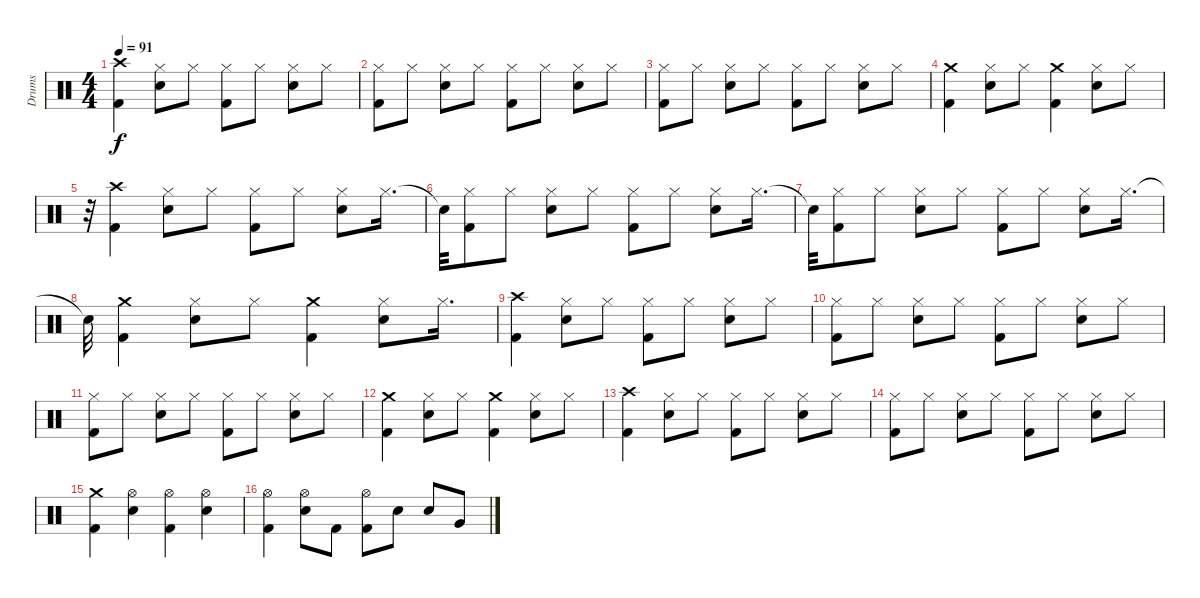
\track ("Drums" "Drums") {instrument percussion}
\staff {score}
\articulation defaults
\ts (4 4)
\tempo 91
\clef neutral
\ks c
("Kick (hit) 2" "Crash high (hit)").4{dy f} ("Hi-Hat (closed)" "Electric Snare (hit)").8 "Hi-Hat (closed)".8 ("Hi-Hat (closed)" "Kick (hit) 2").8 "Hi-Hat (closed)".8 ("Hi-Hat (closed)" "Electric Snare (hit)").8 "Hi-Hat (closed)".8 |
("Hi-Hat (closed)" "Kick (hit) 2").8 "Hi-Hat (closed)".8 ("Hi-Hat (closed)" "Electric Snare (hit)").8 "Hi-Hat (closed)".8 ("Hi-Hat (closed)" "Kick (hit) 2").8 "Hi-Hat (closed)".8 ("Hi-Hat (closed)" "Electric Snare (hit)").8 "Hi-Hat (closed)".8 |
("Hi-Hat (closed)" "Kick (hit) 2").8 "Hi-Hat (closed)".8 ("Hi-Hat (closed)" "Electric Snare (hit)").8 "Hi-Hat (closed)".8 ("Hi-Hat (closed)" "Kick (hit) 2").8 "Hi-Hat (closed)".8 ("Hi-Hat (closed)" "Electric Snare (hit)").8 "Hi-Hat (closed)".8 |
("Crash medium (hit)" "Kick (hit) 2").4 ("Hi-Hat (closed)" "Electric Snare (hit)").8 "Hi-Hat (closed)".8 ("Crash medium (hit)" "Kick (hit) 2").4 ("Hi-Hat (closed)" "Electric Snare (hit)").8 "Hi-Hat (closed)".8 |
r.32 ("Kick (hit) 2" "Crash high (hit)").4 ("Hi-Hat (closed)" "Electric Snare (hit)").8 "Hi-Hat (closed)".8 ("Hi-Hat (closed)" "Kick (hit) 2").8 "Hi-Hat (closed)".8 ("Hi-Hat (closed)" "Electric Snare (hit)").8 "Hi-Hat (closed)".16{d} |
"Snare (hit)"{t}.32 ("Hi-Hat (closed)" "Kick (hit) 2").8 "Hi-Hat (closed)".8 ("Hi-Hat (closed)" "Electric Snare (hit)").8 "Hi-Hat (closed)".8 ("Hi-Hat (closed)" "Kick (hit) 2").8 "Hi-Hat (closed)".8 ("Hi-Hat (closed)" "Electric Snare (hit)").8 "Hi-Hat (closed)".16{d} |
"Snare (hit)"{t}.32 ("Hi-Hat (closed)" "Kick (hit) 2").8 "Hi-Hat (closed)".8 ("Hi-Hat (closed)" "Electric Snare (hit)").8 "Hi-Hat (closed)".8 ("Hi-Hat (closed)" "Kick (hit) 2").8 "Hi-Hat (closed)".8 ("Hi-Hat (closed)" "Electric Snare (hit)").8 "Hi-Hat (closed)".16{d} |
"Snare (hit)"{t}.32 ("Crash medium (hit)" "Kick (hit) 2").4 ("Hi-Hat (closed)" "Electric Snare (hit)").8 "Hi-Hat (closed)".8 ("Crash medium (hit)" "Kick (hit) 2").4 ("Hi-Hat (closed)" "Electric Snare (hit)").8 "Hi-Hat (closed)".16{d} |
("Kick (hit) 2" "Crash high (hit)").4 ("Hi-Hat (closed)" "Electric Snare (hit)").8 "Hi-Hat (closed)".8 ("Hi-Hat (closed)" "Kick (hit) 2").8 "Hi-Hat (closed)".8 ("Hi-Hat (closed)" "Electric Snare (hit)").8 "Hi-Hat (closed)".8 |
("Hi-Hat (closed)" "Kick (hit) 2").8 "Hi-Hat (closed)".8 ("Hi-Hat (closed)" "Electric Snare (hit)").8 "Hi-Hat (closed)".8 ("Hi-Hat (closed)" "Kick (hit) 2").8 "Hi-Hat (closed)".8 ("Hi-Hat (closed)" "Electric Snare (hit)").8 "Hi-Hat (closed)".8 |
("Hi-Hat (closed)" "Kick (hit) 2").8 "Hi-Hat (closed)".8 ("Hi-Hat (closed)" "Electric Snare (hit)").8 "Hi-Hat (closed)".8 ("Hi-Hat (closed)" "Kick (hit) 2").8 "Hi-Hat (closed)".8 ("Hi-Hat (closed)" "Electric Snare (hit)").8 "Hi-Hat (closed)".8 |
("Crash medium (hit)" "Kick (hit) 2").4 ("Hi-Hat (closed)" "Electric Snare (hit)").8 "Hi-Hat (closed)".8 ("Crash medium (hit)" "Kick (hit) 2").4 ("Hi-Hat (closed)" "Electric Snare (hit)").8 "Hi-Hat (closed)".8 |
("Kick (hit) 2" "Crash high (hit)").4 ("Hi-Hat (closed)" "Electric Snare (hit)").8 "Hi-Hat (closed)".8 ("Hi-Hat (closed)" "Kick (hit) 2").8 "Hi-Hat (closed)".8 ("Hi-Hat (closed)" "Electric Snare (hit)").8 "Hi-Hat (closed)".8 |
("Hi-Hat (closed)" "Kick (hit) 2").8 "Hi-Hat (closed)".8 ("Hi-Hat (closed)" "Electric Snare (hit)").8 "Hi-Hat (closed)".8 ("Hi-Hat (closed)" "Kick (hit) 2").8 "Hi-Hat (closed)".8 ("Hi-Hat (closed)" "Electric Snare (hit)").8 "Hi-Hat (closed)".8 |
("Kick (hit) 2" "Crash medium (hit)").4 ("Hi-Hat (open)" "Electric Snare (hit)").4 ("Hi-Hat (open)" "Kick (hit) 2").4 ("Hi-Hat (open)" "Electric Snare (hit)").4 |
("Hi-Hat (open)" "Kick (hit) 2").4 ("Hi-Hat (open)" "Electric Snare (hit)").8 "Kick (hit) 2".8 ("Hi-Hat (open)" "Kick (hit) 2").8 "Electric Snare (hit)".8 "Electric Snare (hit)".8 "Very Low Tom (hit)".8
